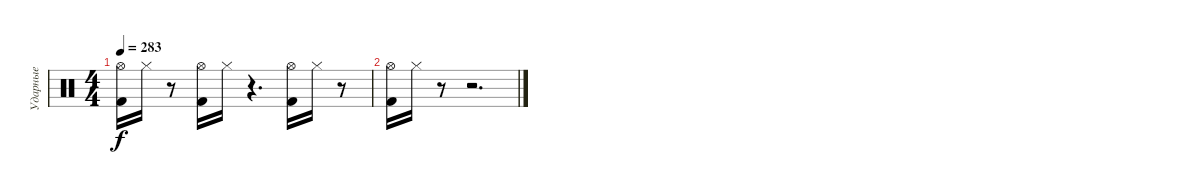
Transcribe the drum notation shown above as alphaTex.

\track ("Ударные" "Ударные") {instrument percussion}
\staff {score}
\articulation defaults
\ts (4 4)
\tempo 283
\clef neutral
\ks c
("Hi-Hat (open)" "Kick (hit) 2").16{dy f} "Hi-Hat (closed)".16 r.8 ("Hi-Hat (open)" "Kick (hit) 2").16 "Hi-Hat (closed)".16 r.4{d} ("Hi-Hat (open)" "Kick (hit) 2").16 "Hi-Hat (closed)".16 r.8 |
("Hi-Hat (open)" "Kick (hit) 2").16 "Hi-Hat (closed)".16 r.8 r.2{d}
